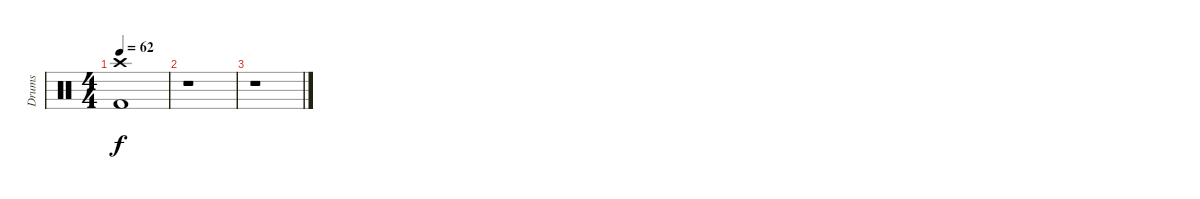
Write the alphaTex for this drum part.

\track ("Drums" "Drums") {instrument percussion}
\staff {score}
\articulation defaults
\ts (4 4)
\tempo 62
\clef neutral
\ks c
("Crash high (hit)" "Kick (hit) 2").1{dy f} |
r.1 |
r.1
